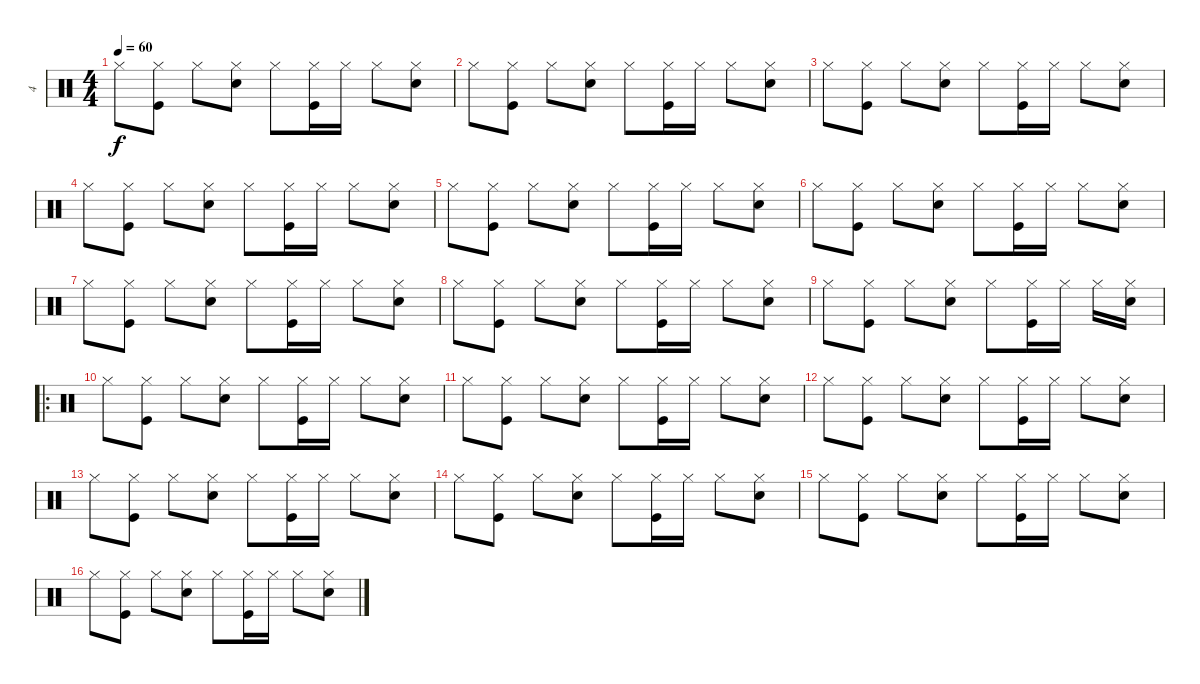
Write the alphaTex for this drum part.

\track ("4" "4") {instrument percussion}
\staff {score}
\articulation defaults
\ts (4 4)
\tempo 60
\clef neutral
\ks c "Hi-Hat (closed)".8{dy f}
("Kick (hit)" "Hi-Hat (closed)").8 "Hi-Hat (closed)".8 ("Hand Clap (hit)" "Hi-Hat (closed)").8 "Hi-Hat (closed)".8 ("Kick (hit)" "Hi-Hat (closed)").16 "Hi-Hat (closed)".16 "Hi-Hat (closed)".8 ("Hand Clap (hit)" "Hi-Hat (closed)").8 |
"Hi-Hat (closed)".8 ("Kick (hit)" "Hi-Hat (closed)").8 "Hi-Hat (closed)".8 ("Hand Clap (hit)" "Hi-Hat (closed)").8 "Hi-Hat (closed)".8 ("Kick (hit)" "Hi-Hat (closed)").16 "Hi-Hat (closed)".16 "Hi-Hat (closed)".8 ("Hand Clap (hit)" "Hi-Hat (closed)").8 |
"Hi-Hat (closed)".8 ("Kick (hit)" "Hi-Hat (closed)").8 "Hi-Hat (closed)".8 ("Hand Clap (hit)" "Hi-Hat (closed)").8 "Hi-Hat (closed)".8 ("Kick (hit)" "Hi-Hat (closed)").16 "Hi-Hat (closed)".16 "Hi-Hat (closed)".8 ("Hand Clap (hit)" "Hi-Hat (closed)").8 |
"Hi-Hat (closed)".8 ("Kick (hit)" "Hi-Hat (closed)").8 "Hi-Hat (closed)".8 ("Hand Clap (hit)" "Hi-Hat (closed)").8 "Hi-Hat (closed)".8 ("Kick (hit)" "Hi-Hat (closed)").16 "Hi-Hat (closed)".16 "Hi-Hat (closed)".8 ("Hand Clap (hit)" "Hi-Hat (closed)").8 |
"Hi-Hat (closed)".8 ("Kick (hit)" "Hi-Hat (closed)").8 "Hi-Hat (closed)".8 ("Hand Clap (hit)" "Hi-Hat (closed)").8 "Hi-Hat (closed)".8 ("Kick (hit)" "Hi-Hat (closed)").16 "Hi-Hat (closed)".16 "Hi-Hat (closed)".8 ("Hand Clap (hit)" "Hi-Hat (closed)").8 |
"Hi-Hat (closed)".8 ("Kick (hit)" "Hi-Hat (closed)").8 "Hi-Hat (closed)".8 ("Hand Clap (hit)" "Hi-Hat (closed)").8 "Hi-Hat (closed)".8 ("Kick (hit)" "Hi-Hat (closed)").16 "Hi-Hat (closed)".16 "Hi-Hat (closed)".8 ("Hand Clap (hit)" "Hi-Hat (closed)").8 |
"Hi-Hat (closed)".8 ("Kick (hit)" "Hi-Hat (closed)").8 "Hi-Hat (closed)".8 ("Hand Clap (hit)" "Hi-Hat (closed)").8 "Hi-Hat (closed)".8 ("Kick (hit)" "Hi-Hat (closed)").16 "Hi-Hat (closed)".16 "Hi-Hat (closed)".8 ("Hand Clap (hit)" "Hi-Hat (closed)").8 |
"Hi-Hat (closed)".8 ("Kick (hit)" "Hi-Hat (closed)").8 "Hi-Hat (closed)".8 ("Hand Clap (hit)" "Hi-Hat (closed)").8 "Hi-Hat (closed)".8 ("Kick (hit)" "Hi-Hat (closed)").16 "Hi-Hat (closed)".16 "Hi-Hat (closed)".8 ("Hand Clap (hit)" "Hi-Hat (closed)").8 |
"Hi-Hat (closed)".8 ("Kick (hit)" "Hi-Hat (closed)").8 "Hi-Hat (closed)".8 ("Hand Clap (hit)" "Hi-Hat (closed)").8 "Hi-Hat (closed)".8 ("Kick (hit)" "Hi-Hat (closed)").16 "Hi-Hat (closed)".16 "Hi-Hat (closed)".16 ("Hand Clap (hit)" "Hi-Hat (closed)").16 |
\ro "Hi-Hat (closed)".8
("Kick (hit)" "Hi-Hat (closed)").8 "Hi-Hat (closed)".8 ("Hand Clap (hit)" "Hi-Hat (closed)").8 "Hi-Hat (closed)".8 ("Kick (hit)" "Hi-Hat (closed)").16 "Hi-Hat (closed)".16 "Hi-Hat (closed)".8 ("Hand Clap (hit)" "Hi-Hat (closed)").8 |
"Hi-Hat (closed)".8 ("Kick (hit)" "Hi-Hat (closed)").8 "Hi-Hat (closed)".8 ("Hand Clap (hit)" "Hi-Hat (closed)").8 "Hi-Hat (closed)".8 ("Kick (hit)" "Hi-Hat (closed)").16 "Hi-Hat (closed)".16 "Hi-Hat (closed)".8 ("Hand Clap (hit)" "Hi-Hat (closed)").8 |
"Hi-Hat (closed)".8 ("Kick (hit)" "Hi-Hat (closed)").8 "Hi-Hat (closed)".8 ("Hand Clap (hit)" "Hi-Hat (closed)").8 "Hi-Hat (closed)".8 ("Kick (hit)" "Hi-Hat (closed)").16 "Hi-Hat (closed)".16 "Hi-Hat (closed)".8 ("Hand Clap (hit)" "Hi-Hat (closed)").8 |
"Hi-Hat (closed)".8 ("Kick (hit)" "Hi-Hat (closed)").8 "Hi-Hat (closed)".8 ("Hand Clap (hit)" "Hi-Hat (closed)").8 "Hi-Hat (closed)".8 ("Kick (hit)" "Hi-Hat (closed)").16 "Hi-Hat (closed)".16 "Hi-Hat (closed)".8 ("Hand Clap (hit)" "Hi-Hat (closed)").8 |
"Hi-Hat (closed)".8 ("Kick (hit)" "Hi-Hat (closed)").8 "Hi-Hat (closed)".8 ("Hand Clap (hit)" "Hi-Hat (closed)").8 "Hi-Hat (closed)".8 ("Kick (hit)" "Hi-Hat (closed)").16 "Hi-Hat (closed)".16 "Hi-Hat (closed)".8 ("Hand Clap (hit)" "Hi-Hat (closed)").8 |
"Hi-Hat (closed)".8 ("Kick (hit)" "Hi-Hat (closed)").8 "Hi-Hat (closed)".8 ("Hand Clap (hit)" "Hi-Hat (closed)").8 "Hi-Hat (closed)".8 ("Kick (hit)" "Hi-Hat (closed)").16 "Hi-Hat (closed)".16 "Hi-Hat (closed)".8 ("Hand Clap (hit)" "Hi-Hat (closed)").8 |
"Hi-Hat (closed)".8 ("Kick (hit)" "Hi-Hat (closed)").8 "Hi-Hat (closed)".8 ("Hand Clap (hit)" "Hi-Hat (closed)").8 "Hi-Hat (closed)".8 ("Kick (hit)" "Hi-Hat (closed)").16 "Hi-Hat (closed)".16 "Hi-Hat (closed)".8 ("Hand Clap (hit)" "Hi-Hat (closed)").8
